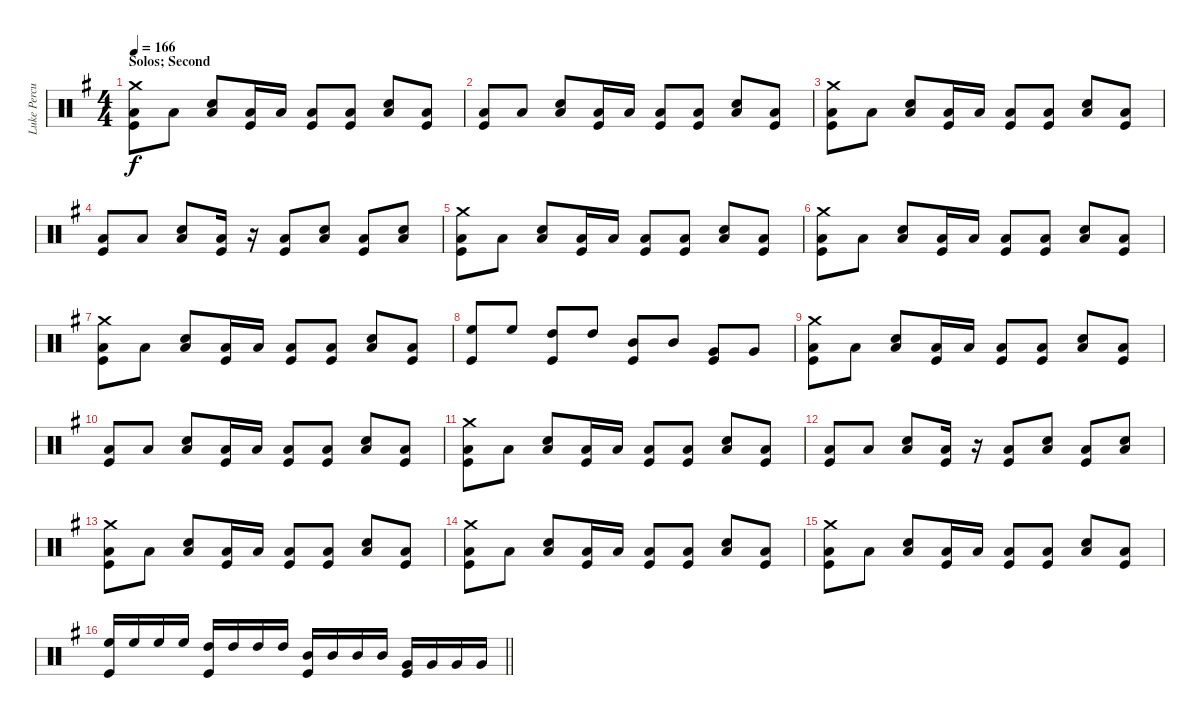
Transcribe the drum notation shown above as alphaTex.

\track ("Luke Percussion" "Luke Percu") {instrument percussion}
\staff {score}
\articulation defaults
\ts (4 4)
\section ("" "Solos; Second")
\tempo 166
\clef neutral
\ks eminor
("Crash medium (hit)" "Low Floor Tom (hit)" "Kick (hit)").8{dy f} "Low Floor Tom (hit)".8 ("Snare (hit) 2" "Low Floor Tom (hit)").8 ("Low Floor Tom (hit)" "Kick (hit)").16 "Low Floor Tom (hit)".16 ("Low Floor Tom (hit)" "Kick (hit)").8 ("Low Floor Tom (hit)" "Kick (hit)").8 ("Snare (hit) 2" "Low Floor Tom (hit)").8 ("Low Floor Tom (hit)" "Kick (hit)").8 |
("Low Floor Tom (hit)" "Kick (hit)").8 "Low Floor Tom (hit)".8 ("Snare (hit) 2" "Low Floor Tom (hit)").8 ("Low Floor Tom (hit)" "Kick (hit)").16 "Low Floor Tom (hit)".16 ("Low Floor Tom (hit)" "Kick (hit)").8 ("Low Floor Tom (hit)" "Kick (hit)").8 ("Snare (hit) 2" "Low Floor Tom (hit)").8 ("Low Floor Tom (hit)" "Kick (hit)").8 |
("Crash medium (hit)" "Low Floor Tom (hit)" "Kick (hit)").8 "Low Floor Tom (hit)".8 ("Snare (hit) 2" "Low Floor Tom (hit)").8 ("Low Floor Tom (hit)" "Kick (hit)").16 "Low Floor Tom (hit)".16 ("Low Floor Tom (hit)" "Kick (hit)").8 ("Low Floor Tom (hit)" "Kick (hit)").8 ("Snare (hit) 2" "Low Floor Tom (hit)").8 ("Low Floor Tom (hit)" "Kick (hit)").8 |
("Low Floor Tom (hit)" "Kick (hit)").8 "Low Floor Tom (hit)".8 ("Snare (hit) 2" "Low Floor Tom (hit)").8 ("Low Floor Tom (hit)" "Kick (hit)").16 r.16 ("Low Floor Tom (hit)" "Kick (hit)").8 ("Snare (hit) 2" "Low Floor Tom (hit)").8 ("Low Floor Tom (hit)" "Kick (hit)").8 ("Snare (hit) 2" "Low Floor Tom (hit)").8 |
("Crash medium (hit)" "Low Floor Tom (hit)" "Kick (hit)").8 "Low Floor Tom (hit)".8 ("Snare (hit) 2" "Low Floor Tom (hit)").8 ("Low Floor Tom (hit)" "Kick (hit)").16 "Low Floor Tom (hit)".16 ("Low Floor Tom (hit)" "Kick (hit)").8 ("Low Floor Tom (hit)" "Kick (hit)").8 ("Snare (hit) 2" "Low Floor Tom (hit)").8 ("Low Floor Tom (hit)" "Kick (hit)").8 |
("Crash medium (hit)" "Low Floor Tom (hit)" "Kick (hit)").8 "Low Floor Tom (hit)".8 ("Snare (hit) 2" "Low Floor Tom (hit)").8 ("Low Floor Tom (hit)" "Kick (hit)").16 "Low Floor Tom (hit)".16 ("Low Floor Tom (hit)" "Kick (hit)").8 ("Low Floor Tom (hit)" "Kick (hit)").8 ("Snare (hit) 2" "Low Floor Tom (hit)").8 ("Low Floor Tom (hit)" "Kick (hit)").8 |
("Crash medium (hit)" "Low Floor Tom (hit)" "Kick (hit)").8 "Low Floor Tom (hit)".8 ("Snare (hit) 2" "Low Floor Tom (hit)").8 ("Low Floor Tom (hit)" "Kick (hit)").16 "Low Floor Tom (hit)".16 ("Low Floor Tom (hit)" "Kick (hit)").8 ("Low Floor Tom (hit)" "Kick (hit)").8 ("Snare (hit) 2" "Low Floor Tom (hit)").8 ("Low Floor Tom (hit)" "Kick (hit)").8 |
("High Floor Tom (hit)" "Kick (hit)").8 "High Floor Tom (hit)".8 ("High Tom (hit)" "Kick (hit)").8 "High Tom (hit)".8 ("Mid Tom (hit)" "Kick (hit)").8 "Mid Tom (hit)".8 ("Very Low Tom (hit)" "Kick (hit)").8 "Very Low Tom (hit)".8 |
("Crash medium (hit)" "Low Floor Tom (hit)" "Kick (hit)").8 "Low Floor Tom (hit)".8 ("Snare (hit) 2" "Low Floor Tom (hit)").8 ("Low Floor Tom (hit)" "Kick (hit)").16 "Low Floor Tom (hit)".16 ("Low Floor Tom (hit)" "Kick (hit)").8 ("Low Floor Tom (hit)" "Kick (hit)").8 ("Snare (hit) 2" "Low Floor Tom (hit)").8 ("Low Floor Tom (hit)" "Kick (hit)").8 |
("Low Floor Tom (hit)" "Kick (hit)").8 "Low Floor Tom (hit)".8 ("Snare (hit) 2" "Low Floor Tom (hit)").8 ("Low Floor Tom (hit)" "Kick (hit)").16 "Low Floor Tom (hit)".16 ("Low Floor Tom (hit)" "Kick (hit)").8 ("Low Floor Tom (hit)" "Kick (hit)").8 ("Snare (hit) 2" "Low Floor Tom (hit)").8 ("Low Floor Tom (hit)" "Kick (hit)").8 |
("Crash medium (hit)" "Low Floor Tom (hit)" "Kick (hit)").8 "Low Floor Tom (hit)".8 ("Snare (hit) 2" "Low Floor Tom (hit)").8 ("Low Floor Tom (hit)" "Kick (hit)").16 "Low Floor Tom (hit)".16 ("Low Floor Tom (hit)" "Kick (hit)").8 ("Low Floor Tom (hit)" "Kick (hit)").8 ("Snare (hit) 2" "Low Floor Tom (hit)").8 ("Low Floor Tom (hit)" "Kick (hit)").8 |
("Low Floor Tom (hit)" "Kick (hit)").8 "Low Floor Tom (hit)".8 ("Snare (hit) 2" "Low Floor Tom (hit)").8 ("Low Floor Tom (hit)" "Kick (hit)").16 r.16 ("Low Floor Tom (hit)" "Kick (hit)").8 ("Snare (hit) 2" "Low Floor Tom (hit)").8 ("Low Floor Tom (hit)" "Kick (hit)").8 ("Snare (hit) 2" "Low Floor Tom (hit)").8 |
("Crash medium (hit)" "Low Floor Tom (hit)" "Kick (hit)").8 "Low Floor Tom (hit)".8 ("Snare (hit) 2" "Low Floor Tom (hit)").8 ("Low Floor Tom (hit)" "Kick (hit)").16 "Low Floor Tom (hit)".16 ("Low Floor Tom (hit)" "Kick (hit)").8 ("Low Floor Tom (hit)" "Kick (hit)").8 ("Snare (hit) 2" "Low Floor Tom (hit)").8 ("Low Floor Tom (hit)" "Kick (hit)").8 |
("Crash medium (hit)" "Low Floor Tom (hit)" "Kick (hit)").8 "Low Floor Tom (hit)".8 ("Snare (hit) 2" "Low Floor Tom (hit)").8 ("Low Floor Tom (hit)" "Kick (hit)").16 "Low Floor Tom (hit)".16 ("Low Floor Tom (hit)" "Kick (hit)").8 ("Low Floor Tom (hit)" "Kick (hit)").8 ("Snare (hit) 2" "Low Floor Tom (hit)").8 ("Low Floor Tom (hit)" "Kick (hit)").8 |
("Crash medium (hit)" "Low Floor Tom (hit)" "Kick (hit)").8 "Low Floor Tom (hit)".8 ("Snare (hit) 2" "Low Floor Tom (hit)").8 ("Low Floor Tom (hit)" "Kick (hit)").16 "Low Floor Tom (hit)".16 ("Low Floor Tom (hit)" "Kick (hit)").8 ("Low Floor Tom (hit)" "Kick (hit)").8 ("Snare (hit) 2" "Low Floor Tom (hit)").8 ("Low Floor Tom (hit)" "Kick (hit)").8 |
\barLineRight lightlight
("High Floor Tom (hit)" "Kick (hit)").16 "High Floor Tom (hit)".16 "High Floor Tom (hit)".16 "High Floor Tom (hit)".16 ("High Tom (hit)" "Kick (hit)").16 "High Tom (hit)".16 "High Tom (hit)".16 "High Tom (hit)".16 ("Mid Tom (hit)" "Kick (hit)").16 "Mid Tom (hit)".16 "Mid Tom (hit)".16 "Mid Tom (hit)".16 ("Very Low Tom (hit)" "Kick (hit)").16 "Very Low Tom (hit)".16 "Very Low Tom (hit)".16 "Very Low Tom (hit)".16
